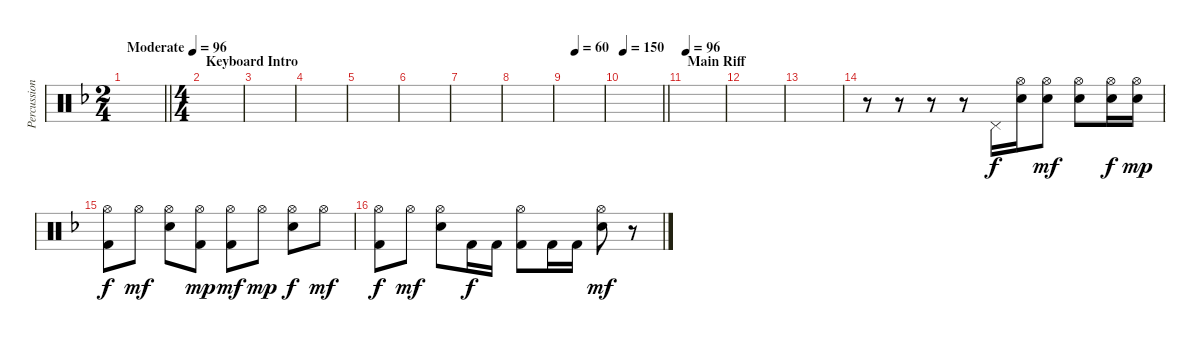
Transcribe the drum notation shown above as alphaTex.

\track ("Percussion" "Percussion") {instrument percussion}
\staff {score}
\articulation defaults
\ts (2 4)
\tempo (96 "Moderate")
\clef neutral
\barLineRight lightlight
\ks dminor
|
\ts (4 4)
\section ("" "Keyboard Intro")
|
|
|
|
|
|
|
\tempo (60 0.25)
|
\tempo 150
\barLineRight lightlight
|
\section ("" "Main Riff")
\tempo 96
|
|
|
r.8 r.8 r.8 r.8 "Pedal Hi-Hat (hit)".16 ("Hi-Hat (open)" "Electric Snare (hit)").16 ("Hi-Hat (open)" "Electric Snare (hit)").8{dy mf} ("Hi-Hat (open)" "Electric Snare (hit)").8 ("Hi-Hat (open)" "Electric Snare (hit)").16{dy f} ("Hi-Hat (open)" "Electric Snare (hit)").16{dy mp} |
("Hi-Hat (open)" "Kick (hit) 2").8{dy f} "Hi-Hat (open)".8{dy mf} ("Hi-Hat (open)" "Electric Snare (hit)").8 ("Hi-Hat (open)" "Kick (hit) 2").8{dy mp} ("Hi-Hat (open)" "Kick (hit) 2").8{dy mf} "Hi-Hat (open)".8{dy mp} ("Hi-Hat (open)" "Electric Snare (hit)").8{dy f} "Hi-Hat (open)".8{dy mf} |
("Hi-Hat (open)" "Kick (hit) 2").8{dy f} "Hi-Hat (open)".8{dy mf} ("Hi-Hat (open)" "Electric Snare (hit)").8 "Kick (hit) 2".16{dy f} "Kick (hit) 2".16 ("Hi-Hat (open)" "Kick (hit) 2").8 "Kick (hit) 2".16 "Kick (hit) 2".16 ("Hi-Hat (open)" "Electric Snare (hit)").8{dy mf} r.8
